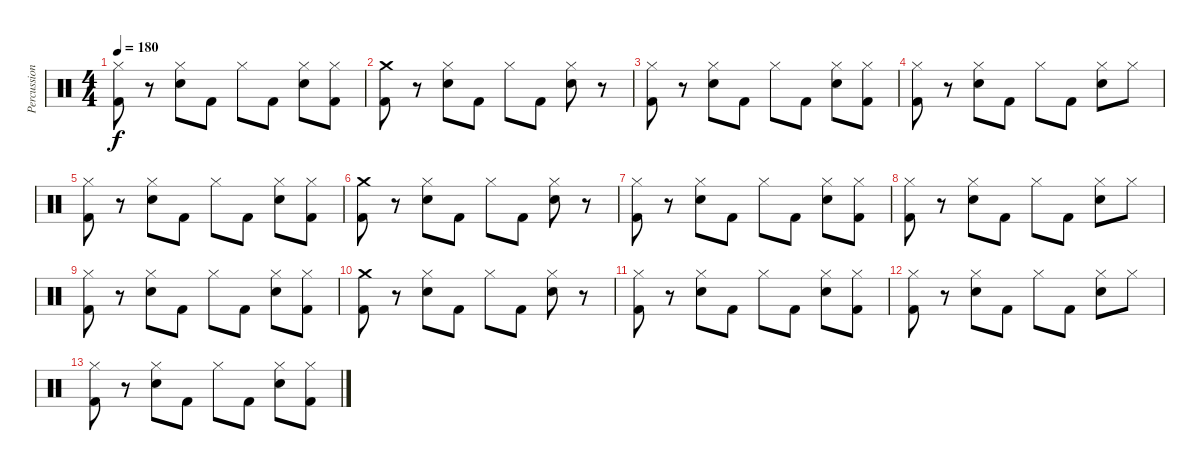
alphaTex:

\track ("Percussions" "Percussion") {instrument percussion}
\staff {score}
\articulation defaults
\ts (4 4)
\tempo 180
\clef neutral
\ks c
("Kick (hit) 2" "Hi-Hat (closed)").8{dy f} r.8 ("Electric Snare (hit)" "Hi-Hat (closed)").8 "Kick (hit) 2".8 "Hi-Hat (closed)".8 "Kick (hit) 2".8 ("Electric Snare (hit)" "Hi-Hat (closed)").8 ("Kick (hit) 2" "Hi-Hat (closed)").8 |
("Kick (hit) 2" "Crash medium (hit)").8 r.8 ("Electric Snare (hit)" "Hi-Hat (closed)").8 "Kick (hit) 2".8 "Hi-Hat (closed)".8 "Kick (hit) 2".8 ("Electric Snare (hit)" "Hi-Hat (closed)").8 r.8 |
("Kick (hit) 2" "Hi-Hat (closed)").8 r.8 ("Electric Snare (hit)" "Hi-Hat (closed)").8 "Kick (hit) 2".8 "Hi-Hat (closed)".8 "Kick (hit) 2".8 ("Electric Snare (hit)" "Hi-Hat (closed)").8 ("Kick (hit) 2" "Hi-Hat (closed)").8 |
("Kick (hit) 2" "Hi-Hat (closed)").8 r.8 ("Electric Snare (hit)" "Hi-Hat (closed)").8 "Kick (hit) 2".8 "Hi-Hat (closed)".8 "Kick (hit) 2".8 ("Electric Snare (hit)" "Hi-Hat (closed)").8 "Hi-Hat (closed)".8 |
("Kick (hit) 2" "Hi-Hat (closed)").8 r.8 ("Electric Snare (hit)" "Hi-Hat (closed)").8 "Kick (hit) 2".8 "Hi-Hat (closed)".8 "Kick (hit) 2".8 ("Electric Snare (hit)" "Hi-Hat (closed)").8 ("Kick (hit) 2" "Hi-Hat (closed)").8 |
("Kick (hit) 2" "Crash medium (hit)").8 r.8 ("Electric Snare (hit)" "Hi-Hat (closed)").8 "Kick (hit) 2".8 "Hi-Hat (closed)".8 "Kick (hit) 2".8 ("Electric Snare (hit)" "Hi-Hat (closed)").8 r.8 |
("Kick (hit) 2" "Hi-Hat (closed)").8 r.8 ("Electric Snare (hit)" "Hi-Hat (closed)").8 "Kick (hit) 2".8 "Hi-Hat (closed)".8 "Kick (hit) 2".8 ("Electric Snare (hit)" "Hi-Hat (closed)").8 ("Kick (hit) 2" "Hi-Hat (closed)").8 |
("Kick (hit) 2" "Hi-Hat (closed)").8 r.8 ("Electric Snare (hit)" "Hi-Hat (closed)").8 "Kick (hit) 2".8 "Hi-Hat (closed)".8 "Kick (hit) 2".8 ("Electric Snare (hit)" "Hi-Hat (closed)").8 "Hi-Hat (closed)".8 |
("Kick (hit) 2" "Hi-Hat (closed)").8 r.8 ("Electric Snare (hit)" "Hi-Hat (closed)").8 "Kick (hit) 2".8 "Hi-Hat (closed)".8 "Kick (hit) 2".8 ("Electric Snare (hit)" "Hi-Hat (closed)").8 ("Kick (hit) 2" "Hi-Hat (closed)").8 |
("Kick (hit) 2" "Crash medium (hit)").8 r.8 ("Electric Snare (hit)" "Hi-Hat (closed)").8 "Kick (hit) 2".8 "Hi-Hat (closed)".8 "Kick (hit) 2".8 ("Electric Snare (hit)" "Hi-Hat (closed)").8 r.8 |
("Kick (hit) 2" "Hi-Hat (closed)").8 r.8 ("Electric Snare (hit)" "Hi-Hat (closed)").8 "Kick (hit) 2".8 "Hi-Hat (closed)".8 "Kick (hit) 2".8 ("Electric Snare (hit)" "Hi-Hat (closed)").8 ("Kick (hit) 2" "Hi-Hat (closed)").8 |
("Kick (hit) 2" "Hi-Hat (closed)").8 r.8 ("Electric Snare (hit)" "Hi-Hat (closed)").8 "Kick (hit) 2".8 "Hi-Hat (closed)".8 "Kick (hit) 2".8 ("Electric Snare (hit)" "Hi-Hat (closed)").8 "Hi-Hat (closed)".8 |
("Kick (hit) 2" "Hi-Hat (closed)").8 r.8 ("Electric Snare (hit)" "Hi-Hat (closed)").8 "Kick (hit) 2".8 "Hi-Hat (closed)".8 "Kick (hit) 2".8 ("Electric Snare (hit)" "Hi-Hat (closed)").8 ("Kick (hit) 2" "Hi-Hat (closed)").8
